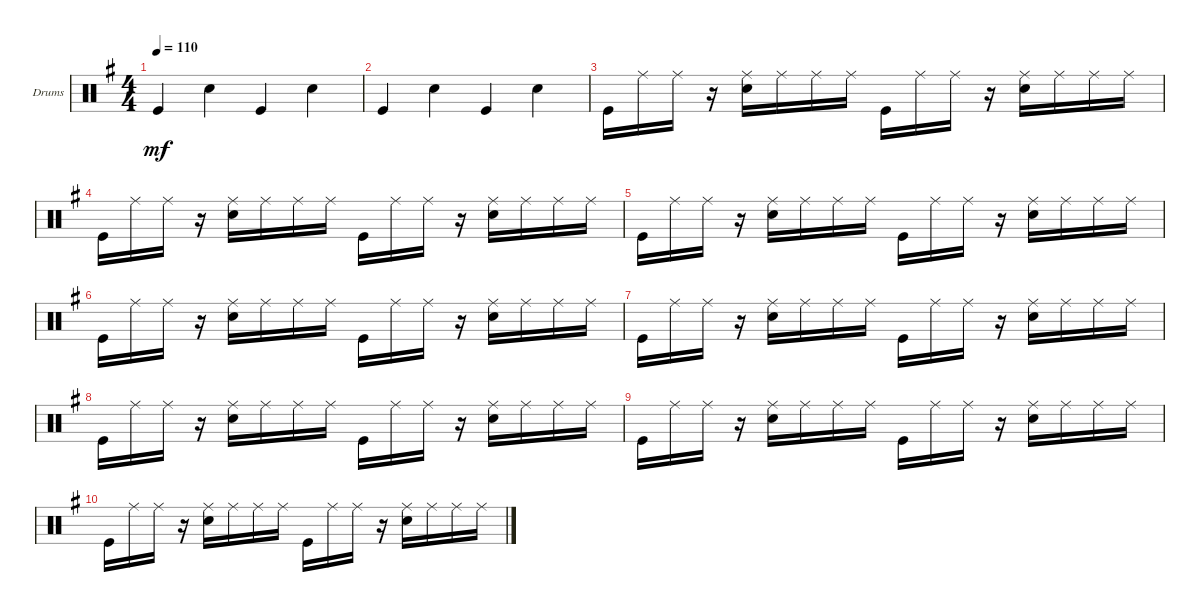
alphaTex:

\defaultSystemsLayout 4
\bracketExtendMode groupsimilarinstruments
\firstSystemTrackNameOrientation horizontal
\otherSystemsTrackNameOrientation horizontal
\track ("Drumkit" "Drums") {instrument percussion}
\staff {score}
\articulation defaults
\ts (4 4)
\tempo 110
\clef neutral
\ks g "Kick (hit)".4{dy mf} "Snare (hit) 2".4 "Kick (hit)".4 "Snare (hit) 2".4
|
"Kick (hit)".4 "Snare (hit) 2".4 "Kick (hit)".4 "Snare (hit) 2".4 |
"Kick (hit)".16 "Ride (middle)".16 "Ride (middle)".16 r.16 ("Snare (hit) 2" "Ride (middle)").16 "Ride (middle)".16 "Ride (middle)".16 "Ride (middle)".16 "Kick (hit)".16 "Ride (middle)".16 "Ride (middle)".16 r.16 ("Snare (hit) 2" "Ride (middle)").16 "Ride (middle)".16 "Ride (middle)".16 "Ride (middle)".16 |
"Kick (hit)".16 "Ride (middle)".16 "Ride (middle)".16 r.16 ("Snare (hit) 2" "Ride (middle)").16 "Ride (middle)".16 "Ride (middle)".16 "Ride (middle)".16 "Kick (hit)".16 "Ride (middle)".16 "Ride (middle)".16 r.16 ("Snare (hit) 2" "Ride (middle)").16 "Ride (middle)".16 "Ride (middle)".16 "Ride (middle)".16 |
"Kick (hit)".16 "Ride (middle)".16 "Ride (middle)".16 r.16 ("Snare (hit) 2" "Ride (middle)").16 "Ride (middle)".16 "Ride (middle)".16 "Ride (middle)".16 "Kick (hit)".16 "Ride (middle)".16 "Ride (middle)".16 r.16 ("Snare (hit) 2" "Ride (middle)").16 "Ride (middle)".16 "Ride (middle)".16 "Ride (middle)".16 |
"Kick (hit)".16 "Ride (middle)".16 "Ride (middle)".16 r.16 ("Snare (hit) 2" "Ride (middle)").16 "Ride (middle)".16 "Ride (middle)".16 "Ride (middle)".16 "Kick (hit)".16 "Ride (middle)".16 "Ride (middle)".16 r.16 ("Snare (hit) 2" "Ride (middle)").16 "Ride (middle)".16 "Ride (middle)".16 "Ride (middle)".16 |
"Kick (hit)".16 "Ride (middle)".16 "Ride (middle)".16 r.16 ("Snare (hit) 2" "Ride (middle)").16 "Ride (middle)".16 "Ride (middle)".16 "Ride (middle)".16 "Kick (hit)".16 "Ride (middle)".16 "Ride (middle)".16 r.16 ("Snare (hit) 2" "Ride (middle)").16 "Ride (middle)".16 "Ride (middle)".16 "Ride (middle)".16 |
"Kick (hit)".16 "Ride (middle)".16 "Ride (middle)".16 r.16 ("Snare (hit) 2" "Ride (middle)").16 "Ride (middle)".16 "Ride (middle)".16 "Ride (middle)".16 "Kick (hit)".16 "Ride (middle)".16 "Ride (middle)".16 r.16 ("Snare (hit) 2" "Ride (middle)").16 "Ride (middle)".16 "Ride (middle)".16 "Ride (middle)".16 |
"Kick (hit)".16 "Ride (middle)".16 "Ride (middle)".16 r.16 ("Snare (hit) 2" "Ride (middle)").16 "Ride (middle)".16 "Ride (middle)".16 "Ride (middle)".16 "Kick (hit)".16 "Ride (middle)".16 "Ride (middle)".16 r.16 ("Snare (hit) 2" "Ride (middle)").16 "Ride (middle)".16 "Ride (middle)".16 "Ride (middle)".16 |
"Kick (hit)".16 "Ride (middle)".16 "Ride (middle)".16 r.16 ("Snare (hit) 2" "Ride (middle)").16 "Ride (middle)".16 "Ride (middle)".16 "Ride (middle)".16 "Kick (hit)".16 "Ride (middle)".16 "Ride (middle)".16 r.16 ("Snare (hit) 2" "Ride (middle)").16 "Ride (middle)".16 "Ride (middle)".16 "Ride (middle)".16
